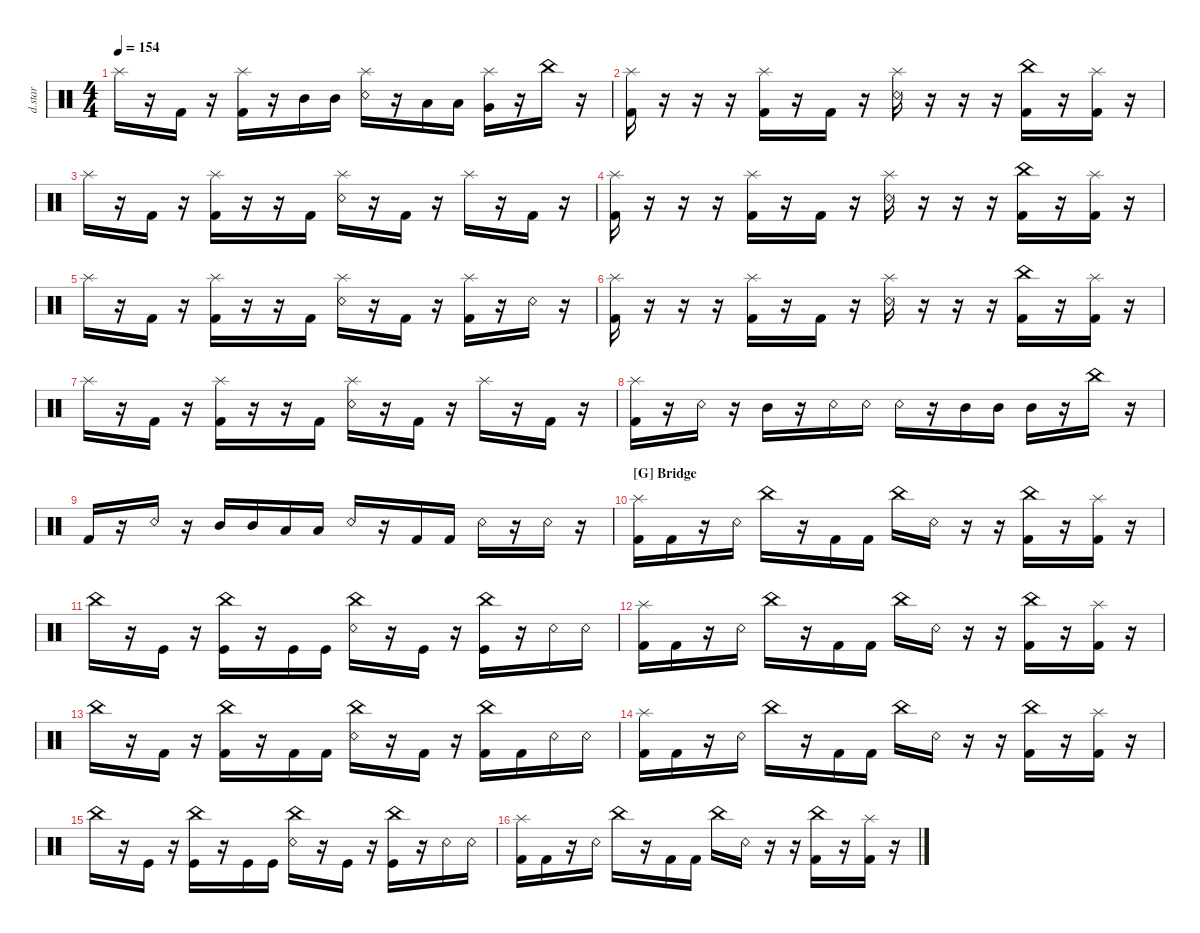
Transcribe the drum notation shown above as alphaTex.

\defaultSystemsLayout 4
\hideDynamics
\bracketExtendMode nobrackets
\otherSystemsTrackNameOrientation horizontal
\track ("Drumkit Star" "d.star") {instrument percussion}
\staff {score}
\articulation defaults
\ts (4 4)
\tempo 154
\clef neutral
\ks c "Splash (hit)".16{dy ff beam Down}
r.16{beam Down} "Kick (hit) 2".16{beam Down} r.16{beam Down} ("Splash (hit)" "Kick (hit) 2").16{beam Down} r.16{beam Down} "Mid Tom (hit)".16{beam Down} "Mid Tom (hit)".16{beam Down} ("Splash (hit)" "Snare (rim shot)").16{beam Down} r.16{beam Down} "Low Tom (hit)".16{beam Down} "Low Tom (hit)".16{beam Down} ("Splash (hit)" "Very Low Tom (hit)").16{beam Down} r.16{beam Down} "China (hit)".16{beam Down} r.16{beam Down} |
("Splash (hit)" "Kick (hit) 2").16{beam Down} r.16{beam Down} r.16{beam Down} r.16{beam Down} ("Splash (hit)" "Kick (hit) 2").16{beam Down} r.16{beam Down} "Kick (hit) 2".16{beam Down} r.16{beam Down} ("Splash (hit)" "Snare (rim shot)").16{beam Down} r.16{beam Down} r.16{beam Down} r.16{beam Down} ("China (hit)" "Kick (hit) 2").16{beam Down} r.16{beam Down} ("Splash (hit)" "Kick (hit) 2").16{beam Down} r.16{beam Down} |
"Splash (hit)".16{beam Down} r.16{beam Down} "Kick (hit) 2".16{beam Down} r.16{beam Down} ("Splash (hit)" "Kick (hit) 2").16{beam Down} r.16{beam Down} r.16{beam Down} "Kick (hit) 2".16{beam Down} ("Splash (hit)" "Snare (rim shot)").16{beam Down} r.16{beam Down} "Kick (hit) 2".16{beam Down} r.16{beam Down} "Splash (hit)".16{beam Down} r.16{beam Down} "Kick (hit) 2".16{beam Down} r.16{beam Down} |
("Splash (hit)" "Kick (hit) 2").16{beam Down} r.16{beam Down} r.16{beam Down} r.16{beam Down} ("Splash (hit)" "Kick (hit) 2").16{beam Down} r.16{beam Down} "Kick (hit) 2".16{beam Down} r.16{beam Down} ("Splash (hit)" "Snare (rim shot)").16{beam Down} r.16{beam Down} r.16{beam Down} r.16{beam Down} ("China (hit)" "Kick (hit) 2").16{beam Down} r.16{beam Down} ("Splash (hit)" "Kick (hit) 2").16{beam Down} r.16{beam Down} |
"Splash (hit)".16{beam Down} r.16{beam Down} "Kick (hit) 2".16{beam Down} r.16{beam Down} ("Splash (hit)" "Kick (hit) 2").16{beam Down} r.16{beam Down} r.16{beam Down} "Kick (hit) 2".16{beam Down} ("Splash (hit)" "Snare (rim shot)").16{beam Down} r.16{beam Down} "Kick (hit) 2".16{beam Down} r.16{beam Down} ("Splash (hit)" "Kick (hit) 2").16{beam Down} r.16{beam Down} "Snare (rim shot)".16{beam Down} r.16{beam Down} |
("Splash (hit)" "Kick (hit) 2").16{beam Down} r.16{beam Down} r.16{beam Down} r.16{beam Down} ("Splash (hit)" "Kick (hit) 2").16{beam Down} r.16{beam Down} "Kick (hit) 2".16{beam Down} r.16{beam Down} ("Splash (hit)" "Snare (rim shot)").16{beam Down} r.16{beam Down} r.16{beam Down} r.16{beam Down} ("China (hit)" "Kick (hit) 2").16{beam Down} r.16{beam Down} ("Splash (hit)" "Kick (hit) 2").16{beam Down} r.16{beam Down} |
"Splash (hit)".16{beam Down} r.16{beam Down} "Kick (hit) 2".16{beam Down} r.16{beam Down} ("Splash (hit)" "Kick (hit) 2").16{beam Down} r.16{beam Down} r.16{beam Down} "Kick (hit) 2".16{beam Down} ("Splash (hit)" "Snare (rim shot)").16{beam Down} r.16{beam Down} "Kick (hit) 2".16{beam Down} r.16{beam Down} "Splash (hit)".16{beam Down} r.16{beam Down} "Kick (hit) 2".16{beam Down} r.16{beam Down} |
("Kick (hit) 2" "Splash (hit)").16{beam Down} r.16{beam Down} "Snare (rim shot)".16{beam Down} r.16{beam Down} "Mid Tom (hit)".16{beam Down} r.16{beam Down} "Snare (rim shot)".16{beam Down} "Snare (rim shot)".16{beam Down} "Snare (rim shot)".16{beam Down} r.16{beam Down} "Mid Tom (hit)".16{beam Down} "Mid Tom (hit)".16{beam Down} "Mid Tom (hit)".16{beam Down} r.16{beam Down} "China (hit)".16{beam Down} r.16{beam Down} |
"Kick (hit) 2".16{beam Up} r.16{beam Up} "Snare (rim shot)".16{beam Up} r.16{beam Up} "Mid Tom (hit)".16{beam Up} "Mid Tom (hit)".16{beam Up} "Low Tom (hit)".16{beam Up} "Low Tom (hit)".16{beam Up} "Snare (rim shot)".16{beam Up} r.16{beam Up} "Kick (hit) 2".16{beam Up} "Kick (hit) 2".16{beam Up} "Snare (rim shot)".16{beam Down} r.16{beam Down} "Snare (rim shot)".16{beam Down} r.16{beam Down} |
\section ("G" "Bridge")
("Splash (hit)" "Kick (hit) 2").16{beam Down} "Kick (hit) 2".16{beam Down} r.16{beam Down} "Snare (rim shot)".16{beam Down} "China (hit)".16{beam Down} r.16{beam Down} "Kick (hit) 2".16{beam Down} "Kick (hit) 2".16{beam Down} "China (hit)".16{beam Down} "Snare (rim shot)".16{beam Down} r.16{beam Down} r.16{beam Down} ("China (hit)" "Kick (hit) 2").16{beam Down} r.16{beam Down} ("Splash (hit)" "Kick (hit) 2").16{beam Down} r.16{beam Down} |
"China (hit)".16{beam Down} r.16{beam Down} "Kick (hit)".16{beam Down} r.16{beam Down} ("China (hit)" "Kick (hit)").16{beam Down} r.16{beam Down} "Kick (hit)".16{beam Down} "Kick (hit)".16{beam Down} ("China (hit)" "Snare (rim shot)").16{beam Down} r.16{beam Down} "Kick (hit)".16{beam Down} r.16{beam Down} ("China (hit)" "Kick (hit)").16{beam Down} r.16{beam Down} "Snare (rim shot)".16{beam Down} "Snare (rim shot)".16{beam Down} |
("Splash (hit)" "Kick (hit) 2").16{beam Down} "Kick (hit) 2".16{beam Down} r.16{beam Down} "Snare (rim shot)".16{beam Down} "China (hit)".16{beam Down} r.16{beam Down} "Kick (hit) 2".16{beam Down} "Kick (hit) 2".16{beam Down} "China (hit)".16{beam Down} "Snare (rim shot)".16{beam Down} r.16{beam Down} r.16{beam Down} ("China (hit)" "Kick (hit) 2").16{beam Down} r.16{beam Down} ("Splash (hit)" "Kick (hit) 2").16{beam Down} r.16{beam Down} |
"China (hit)".16{beam Down} r.16{beam Down} "Kick (hit) 2".16{beam Down} r.16{beam Down} ("China (hit)" "Kick (hit) 2").16{beam Down} r.16{beam Down} "Kick (hit) 2".16{beam Down} "Kick (hit) 2".16{beam Down} ("China (hit)" "Snare (rim shot)").16{beam Down} r.16{beam Down} "Kick (hit) 2".16{beam Down} r.16{beam Down} ("China (hit)" "Kick (hit) 2").16{beam Down} "Kick (hit) 2".16{beam Down} "Snare (rim shot)".16{beam Down} "Snare (rim shot)".16{beam Down} |
("Splash (hit)" "Kick (hit) 2").16{beam Down} "Kick (hit) 2".16{beam Down} r.16{beam Down} "Snare (rim shot)".16{beam Down} "China (hit)".16{beam Down} r.16{beam Down} "Kick (hit) 2".16{beam Down} "Kick (hit) 2".16{beam Down} "China (hit)".16{beam Down} "Snare (rim shot)".16{beam Down} r.16{beam Down} r.16{beam Down} ("China (hit)" "Kick (hit) 2").16{beam Down} r.16{beam Down} ("Splash (hit)" "Kick (hit) 2").16{beam Down} r.16{beam Down} |
"China (hit)".16{beam Down} r.16{beam Down} "Kick (hit)".16{beam Down} r.16{beam Down} ("China (hit)" "Kick (hit)").16{beam Down} r.16{beam Down} "Kick (hit)".16{beam Down} "Kick (hit)".16{beam Down} ("China (hit)" "Snare (rim shot)").16{beam Down} r.16{beam Down} "Kick (hit)".16{beam Down} r.16{beam Down} ("China (hit)" "Kick (hit)").16{beam Down} r.16{beam Down} "Snare (rim shot)".16{beam Down} "Snare (rim shot)".16{beam Down} |
("Splash (hit)" "Kick (hit) 2").16{beam Down} "Kick (hit) 2".16{beam Down} r.16{beam Down} "Snare (rim shot)".16{beam Down} "China (hit)".16{beam Down} r.16{beam Down} "Kick (hit) 2".16{beam Down} "Kick (hit) 2".16{beam Down} "China (hit)".16{beam Down} "Snare (rim shot)".16{beam Down} r.16{beam Down} r.16{beam Down} ("China (hit)" "Kick (hit) 2").16{beam Down} r.16{beam Down} ("Splash (hit)" "Kick (hit) 2").16{beam Down} r.16{beam Down}
